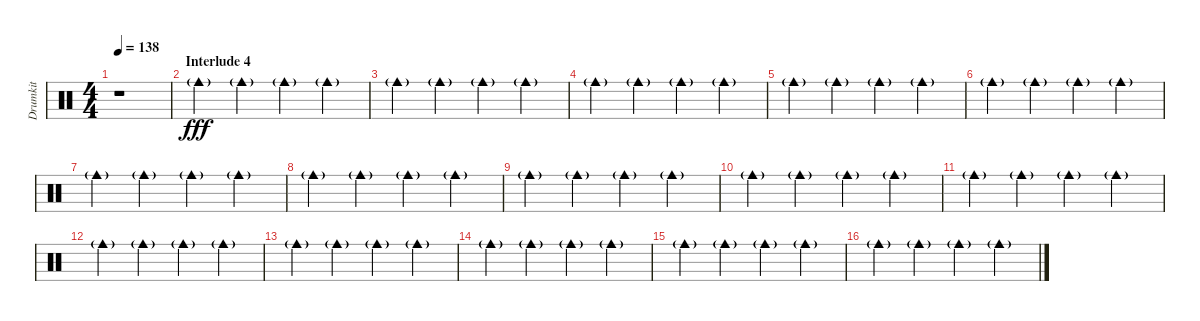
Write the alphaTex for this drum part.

\track ("Drumkit" "Drumkit") {instrument percussion}
\staff {score}
\articulation defaults
\ts (4 4)
\tempo 138
\clef neutral
\ks c
r.1{dy fff} |
\section ("" "Interlude 4")
"Cowbell medium (hit)"{g}.4 "Cowbell medium (hit)"{g}.4 "Cowbell medium (hit)"{g}.4 "Cowbell medium (hit)"{g}.4 |
"Cowbell medium (hit)"{g}.4 "Cowbell medium (hit)"{g}.4 "Cowbell medium (hit)"{g}.4 "Cowbell medium (hit)"{g}.4 |
"Cowbell medium (hit)"{g}.4 "Cowbell medium (hit)"{g}.4 "Cowbell medium (hit)"{g}.4 "Cowbell medium (hit)"{g}.4 |
"Cowbell medium (hit)"{g}.4 "Cowbell medium (hit)"{g}.4 "Cowbell medium (hit)"{g}.4 "Cowbell medium (hit)"{g}.4 |
"Cowbell medium (hit)"{g}.4 "Cowbell medium (hit)"{g}.4 "Cowbell medium (hit)"{g}.4 "Cowbell medium (hit)"{g}.4 |
"Cowbell medium (hit)"{g}.4 "Cowbell medium (hit)"{g}.4 "Cowbell medium (hit)"{g}.4 "Cowbell medium (hit)"{g}.4 |
"Cowbell medium (hit)"{g}.4 "Cowbell medium (hit)"{g}.4 "Cowbell medium (hit)"{g}.4 "Cowbell medium (hit)"{g}.4 |
"Cowbell medium (hit)"{g}.4 "Cowbell medium (hit)"{g}.4 "Cowbell medium (hit)"{g}.4 "Cowbell medium (hit)"{g}.4 |
"Cowbell medium (hit)"{g}.4 "Cowbell medium (hit)"{g}.4 "Cowbell medium (hit)"{g}.4 "Cowbell medium (hit)"{g}.4 |
"Cowbell medium (hit)"{g}.4 "Cowbell medium (hit)"{g}.4 "Cowbell medium (hit)"{g}.4 "Cowbell medium (hit)"{g}.4 |
"Cowbell medium (hit)"{g}.4 "Cowbell medium (hit)"{g}.4 "Cowbell medium (hit)"{g}.4 "Cowbell medium (hit)"{g}.4 |
"Cowbell medium (hit)"{g}.4 "Cowbell medium (hit)"{g}.4 "Cowbell medium (hit)"{g}.4 "Cowbell medium (hit)"{g}.4 |
"Cowbell medium (hit)"{g}.4 "Cowbell medium (hit)"{g}.4 "Cowbell medium (hit)"{g}.4 "Cowbell medium (hit)"{g}.4 |
"Cowbell medium (hit)"{g}.4 "Cowbell medium (hit)"{g}.4 "Cowbell medium (hit)"{g}.4 "Cowbell medium (hit)"{g}.4 |
"Cowbell medium (hit)"{g}.4 "Cowbell medium (hit)"{g}.4 "Cowbell medium (hit)"{g}.4 "Cowbell medium (hit)"{g}.4
